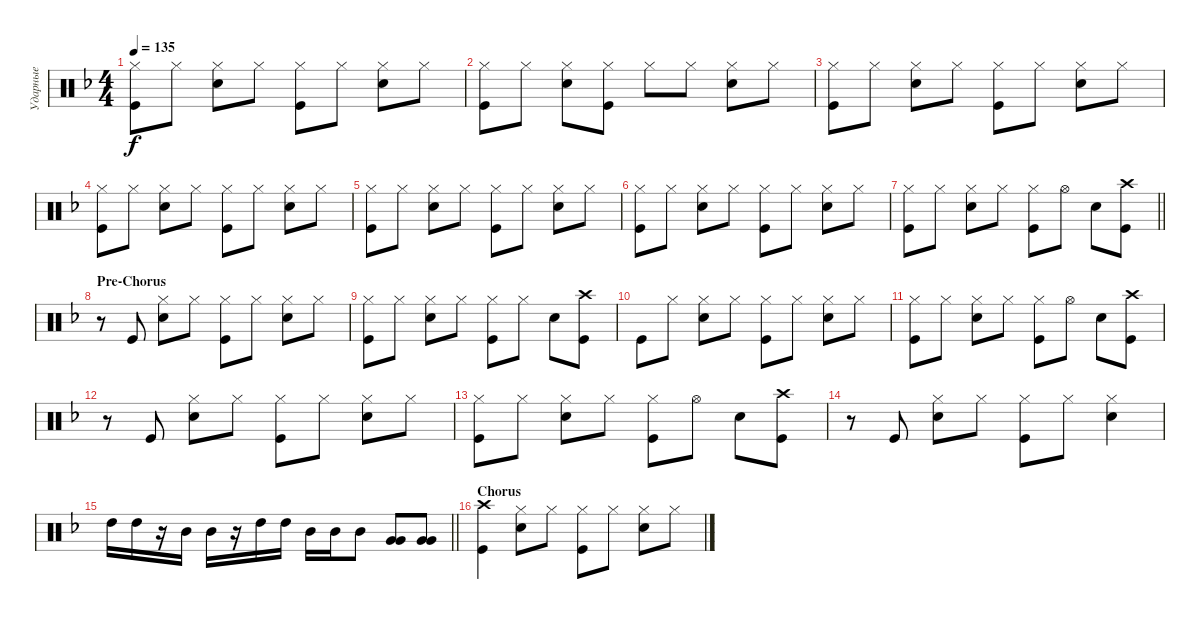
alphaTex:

\track ("Ударные" "Ударные") {instrument percussion}
\staff {score}
\articulation defaults
\ts (4 4)
\tempo 135
\clef neutral
\ks dminor
("Hi-Hat (closed)" "Kick (hit)").8{dy f} "Hi-Hat (closed)".8 ("Hi-Hat (closed)" "Snare (hit) 2").8 "Hi-Hat (closed)".8 ("Hi-Hat (closed)" "Kick (hit)").8 "Hi-Hat (closed)".8 ("Hi-Hat (closed)" "Snare (hit) 2").8 "Hi-Hat (closed)".8 |
("Hi-Hat (closed)" "Kick (hit)").8 "Hi-Hat (closed)".8 ("Hi-Hat (closed)" "Snare (hit) 2").8 ("Hi-Hat (closed)" "Kick (hit)").8 "Hi-Hat (closed)".8 "Hi-Hat (closed)".8 ("Hi-Hat (closed)" "Snare (hit) 2").8 "Hi-Hat (closed)".8 |
("Hi-Hat (closed)" "Kick (hit)").8 "Hi-Hat (closed)".8 ("Hi-Hat (closed)" "Snare (hit) 2").8 "Hi-Hat (closed)".8 ("Hi-Hat (closed)" "Kick (hit)").8 "Hi-Hat (closed)".8 ("Hi-Hat (closed)" "Snare (hit) 2").8 "Hi-Hat (closed)".8 |
("Hi-Hat (closed)" "Kick (hit)").8 "Hi-Hat (closed)".8 ("Hi-Hat (closed)" "Snare (hit) 2").8 "Hi-Hat (closed)".8 ("Hi-Hat (closed)" "Kick (hit)").8 "Hi-Hat (closed)".8 ("Hi-Hat (closed)" "Snare (hit) 2").8 "Hi-Hat (closed)".8 |
("Hi-Hat (closed)" "Kick (hit)").8 "Hi-Hat (closed)".8 ("Hi-Hat (closed)" "Snare (hit) 2").8 "Hi-Hat (closed)".8 ("Hi-Hat (closed)" "Kick (hit)").8 "Hi-Hat (closed)".8 ("Hi-Hat (closed)" "Snare (hit) 2").8 "Hi-Hat (closed)".8 |
("Hi-Hat (closed)" "Kick (hit)").8 "Hi-Hat (closed)".8 ("Hi-Hat (closed)" "Snare (hit) 2").8 "Hi-Hat (closed)".8 ("Hi-Hat (closed)" "Kick (hit)").8 "Hi-Hat (closed)".8 ("Hi-Hat (closed)" "Snare (hit) 2").8 "Hi-Hat (closed)".8 |
\barLineRight lightlight
("Hi-Hat (closed)" "Kick (hit)").8 "Hi-Hat (closed)".8 ("Hi-Hat (closed)" "Snare (hit) 2").8 "Hi-Hat (closed)".8 ("Hi-Hat (closed)" "Kick (hit)").8 "Hi-Hat (open)".8 "Snare (hit) 2".8 ("Kick (hit)" "Crash high (hit)").8 |
\section ("" "Pre-Chorus")
r.8 "Kick (hit)".8 ("Hi-Hat (closed)" "Snare (hit) 2").8 "Hi-Hat (closed)".8 ("Hi-Hat (closed)" "Kick (hit)").8 "Hi-Hat (closed)".8 ("Hi-Hat (closed)" "Snare (hit) 2").8 "Hi-Hat (closed)".8 |
("Hi-Hat (closed)" "Kick (hit)").8 "Hi-Hat (closed)".8 ("Hi-Hat (closed)" "Snare (hit) 2").8 "Hi-Hat (closed)".8 ("Hi-Hat (closed)" "Kick (hit)").8 "Hi-Hat (closed)".8 "Snare (hit) 2".8 ("Kick (hit)" "Crash high (hit)").8 |
"Kick (hit)".8 "Hi-Hat (closed)".8 ("Hi-Hat (closed)" "Snare (hit) 2").8 "Hi-Hat (closed)".8 ("Hi-Hat (closed)" "Kick (hit)").8 "Hi-Hat (closed)".8 ("Hi-Hat (closed)" "Snare (hit) 2").8 "Hi-Hat (closed)".8 |
("Hi-Hat (closed)" "Kick (hit)").8 "Hi-Hat (closed)".8 ("Hi-Hat (closed)" "Snare (hit) 2").8 "Hi-Hat (closed)".8 ("Hi-Hat (closed)" "Kick (hit)").8 "Hi-Hat (open)".8 "Snare (hit) 2".8 ("Kick (hit)" "Crash high (hit)").8 |
r.8 "Kick (hit)".8 ("Hi-Hat (closed)" "Snare (hit) 2").8 "Hi-Hat (closed)".8 ("Hi-Hat (closed)" "Kick (hit)").8 "Hi-Hat (closed)".8 ("Hi-Hat (closed)" "Snare (hit) 2").8 "Hi-Hat (closed)".8 |
("Hi-Hat (closed)" "Kick (hit)").8 "Hi-Hat (closed)".8 ("Hi-Hat (closed)" "Snare (hit) 2").8 "Hi-Hat (closed)".8 ("Hi-Hat (closed)" "Kick (hit)").8 "Hi-Hat (open)".8 "Snare (hit) 2".8 ("Kick (hit)" "Crash high (hit)").8 |
r.8 "Kick (hit)".8 ("Hi-Hat (closed)" "Snare (hit) 2").8 "Hi-Hat (closed)".8 ("Hi-Hat (closed)" "Kick (hit)").8 "Hi-Hat (closed)".8 ("Hi-Hat (closed)" "Snare (hit) 2").4 |
\barLineRight lightlight "High Tom (hit)".16{bd 480} "High Tom (hit)".16
r.16 "Mid Tom (hit)".16 "Mid Tom (hit)".16 r.16 "High Tom (hit)".16 "High Tom (hit)".16 "Mid Tom (hit)".16 "Mid Tom (hit)".16 "Mid Tom (hit)".8 ("Very Low Tom (hit)" "Very Low Tom (hit)").8{bd 120} ("Very Low Tom (hit)" "Very Low Tom (hit)").8{bd 120} |
\section ("" "Chorus")
("Crash high (hit)" "Kick (hit)").4 ("Hi-Hat (closed)" "Snare (hit) 2").8 "Hi-Hat (closed)".8 ("Hi-Hat (closed)" "Kick (hit)").8 "Hi-Hat (closed)".8 ("Hi-Hat (closed)" "Snare (hit) 2").8 "Hi-Hat (closed)".8
